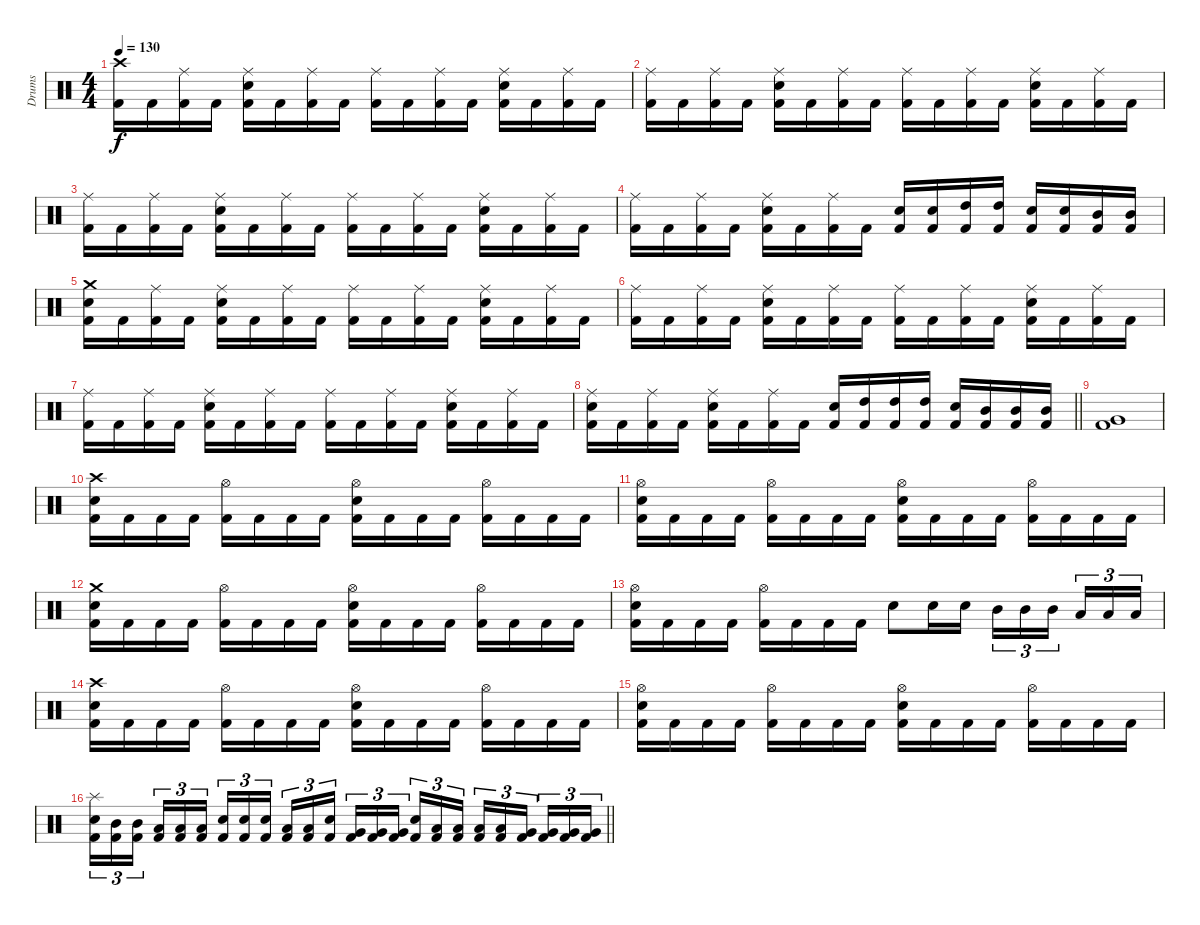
\track ("Drums" "Drums") {instrument percussion}
\staff {score}
\articulation defaults
\ts (4 4)
\tempo 130
\clef neutral
\ks c
("Crash high (hit)" "Kick (hit) 2").16{dy f} "Kick (hit) 2".16 ("Ride (middle)" "Kick (hit) 2").16 "Kick (hit) 2".16 ("Ride (middle)" "Snare (hit) 2" "Kick (hit) 2").16 "Kick (hit) 2".16 ("Ride (middle)" "Kick (hit) 2").16 "Kick (hit) 2".16 ("Ride (middle)" "Kick (hit) 2").16 "Kick (hit) 2".16 ("Ride (middle)" "Kick (hit) 2").16 "Kick (hit) 2".16 ("Ride (middle)" "Snare (hit) 2" "Kick (hit) 2").16 "Kick (hit) 2".16 ("Ride (middle)" "Kick (hit) 2").16 "Kick (hit) 2".16 |
("Ride (middle)" "Kick (hit) 2").16 "Kick (hit) 2".16 ("Ride (middle)" "Kick (hit) 2").16 "Kick (hit) 2".16 ("Ride (middle)" "Snare (hit) 2" "Kick (hit) 2").16 "Kick (hit) 2".16 ("Ride (middle)" "Kick (hit) 2").16 "Kick (hit) 2".16 ("Ride (middle)" "Kick (hit) 2").16 "Kick (hit) 2".16 ("Ride (middle)" "Kick (hit) 2").16 "Kick (hit) 2".16 ("Ride (middle)" "Snare (hit) 2" "Kick (hit) 2").16 "Kick (hit) 2".16 ("Ride (middle)" "Kick (hit) 2").16 "Kick (hit) 2".16 |
("Ride (middle)" "Kick (hit) 2").16 "Kick (hit) 2".16 ("Ride (middle)" "Kick (hit) 2").16 "Kick (hit) 2".16 ("Ride (middle)" "Snare (hit) 2" "Kick (hit) 2").16 "Kick (hit) 2".16 ("Ride (middle)" "Kick (hit) 2").16 "Kick (hit) 2".16 ("Ride (middle)" "Kick (hit) 2").16 "Kick (hit) 2".16 ("Ride (middle)" "Kick (hit) 2").16 "Kick (hit) 2".16 ("Ride (middle)" "Snare (hit) 2" "Kick (hit) 2").16 "Kick (hit) 2".16 ("Ride (middle)" "Kick (hit) 2").16 "Kick (hit) 2".16 |
("Ride (middle)" "Kick (hit) 2").16 "Kick (hit) 2".16 ("Ride (middle)" "Kick (hit) 2").16 "Kick (hit) 2".16 ("Ride (middle)" "Snare (hit) 2" "Kick (hit) 2").16 "Kick (hit) 2".16 ("Ride (middle)" "Kick (hit) 2").16 "Kick (hit) 2".16 ("Snare (hit) 2" "Kick (hit) 2").16 ("Snare (hit) 2" "Kick (hit) 2").16 ("High Tom (hit)" "Kick (hit) 2").16 ("High Tom (hit)" "Kick (hit) 2").16 ("Snare (hit) 2" "Kick (hit) 2").16 ("Snare (hit) 2" "Kick (hit) 2").16 ("Mid Tom (hit)" "Kick (hit) 2").16 ("Mid Tom (hit)" "Kick (hit) 2").16 |
("Crash medium (hit)" "Snare (hit) 2" "Kick (hit) 2").16 "Kick (hit) 2".16 ("Ride (middle)" "Kick (hit) 2").16 "Kick (hit) 2".16 ("Ride (middle)" "Snare (hit) 2" "Kick (hit) 2").16 "Kick (hit) 2".16 ("Ride (middle)" "Kick (hit) 2").16 "Kick (hit) 2".16 ("Ride (middle)" "Kick (hit) 2").16 "Kick (hit) 2".16 ("Ride (middle)" "Kick (hit) 2").16 "Kick (hit) 2".16 ("Ride (middle)" "Snare (hit) 2" "Kick (hit) 2").16 "Kick (hit) 2".16 ("Ride (middle)" "Kick (hit) 2").16 "Kick (hit) 2".16 |
("Ride (middle)" "Kick (hit) 2").16 "Kick (hit) 2".16 ("Ride (middle)" "Kick (hit) 2").16 "Kick (hit) 2".16 ("Ride (middle)" "Snare (hit) 2" "Kick (hit) 2").16 "Kick (hit) 2".16 ("Ride (middle)" "Kick (hit) 2").16 "Kick (hit) 2".16 ("Ride (middle)" "Kick (hit) 2").16 "Kick (hit) 2".16 ("Ride (middle)" "Kick (hit) 2").16 "Kick (hit) 2".16 ("Ride (middle)" "Snare (hit) 2" "Kick (hit) 2").16 "Kick (hit) 2".16 ("Ride (middle)" "Kick (hit) 2").16 "Kick (hit) 2".16 |
("Ride (middle)" "Kick (hit) 2").16 "Kick (hit) 2".16 ("Ride (middle)" "Kick (hit) 2").16 "Kick (hit) 2".16 ("Ride (middle)" "Snare (hit) 2" "Kick (hit) 2").16 "Kick (hit) 2".16 ("Ride (middle)" "Kick (hit) 2").16 "Kick (hit) 2".16 ("Ride (middle)" "Kick (hit) 2").16 "Kick (hit) 2".16 ("Ride (middle)" "Kick (hit) 2").16 "Kick (hit) 2".16 ("Ride (middle)" "Snare (hit) 2" "Kick (hit) 2").16 "Kick (hit) 2".16 ("Ride (middle)" "Kick (hit) 2").16 "Kick (hit) 2".16 |
\barLineRight lightlight
("Ride (middle)" "Snare (hit) 2" "Kick (hit) 2").16 "Kick (hit) 2".16 ("Ride (middle)" "Kick (hit) 2").16 "Kick (hit) 2".16 ("Ride (middle)" "Snare (hit) 2" "Kick (hit) 2").16 "Kick (hit) 2".16 ("Ride (middle)" "Kick (hit) 2").16 "Kick (hit) 2".16 ("Snare (hit) 2" "Kick (hit) 2").16 ("High Tom (hit)" "Kick (hit) 2").16 ("High Tom (hit)" "Kick (hit) 2").16 ("High Tom (hit)" "Kick (hit) 2").16 ("Snare (hit) 2" "Kick (hit) 2").16 ("Mid Tom (hit)" "Kick (hit) 2").16 ("Mid Tom (hit)" "Kick (hit) 2").16 ("Mid Tom (hit)" "Kick (hit) 2").16 |
\section ("" "")
("Very Low Tom (hit)" "Kick (hit) 2").1 |
("Crash high (hit)" "Snare (hit) 2" "Kick (hit) 2").16 "Kick (hit) 2".16 "Kick (hit) 2".16 "Kick (hit) 2".16 ("Hi-Hat (open)" "Kick (hit) 2").16 "Kick (hit) 2".16 "Kick (hit) 2".16 "Kick (hit) 2".16 ("Hi-Hat (open)" "Snare (hit) 2" "Kick (hit) 2").16 "Kick (hit) 2".16 "Kick (hit) 2".16 "Kick (hit) 2".16 ("Hi-Hat (open)" "Kick (hit) 2").16 "Kick (hit) 2".16 "Kick (hit) 2".16 "Kick (hit) 2".16 |
("Hi-Hat (open)" "Snare (hit) 2" "Kick (hit) 2").16 "Kick (hit) 2".16 "Kick (hit) 2".16 "Kick (hit) 2".16 ("Hi-Hat (open)" "Kick (hit) 2").16 "Kick (hit) 2".16 "Kick (hit) 2".16 "Kick (hit) 2".16 ("Hi-Hat (open)" "Snare (hit) 2" "Kick (hit) 2").16 "Kick (hit) 2".16 "Kick (hit) 2".16 "Kick (hit) 2".16 ("Hi-Hat (open)" "Kick (hit) 2").16 "Kick (hit) 2".16 "Kick (hit) 2".16 "Kick (hit) 2".16 |
("Crash medium (hit)" "Snare (hit) 2" "Kick (hit) 2").16 "Kick (hit) 2".16 "Kick (hit) 2".16 "Kick (hit) 2".16 ("Hi-Hat (open)" "Kick (hit) 2").16 "Kick (hit) 2".16 "Kick (hit) 2".16 "Kick (hit) 2".16 ("Hi-Hat (open)" "Snare (hit) 2" "Kick (hit) 2").16 "Kick (hit) 2".16 "Kick (hit) 2".16 "Kick (hit) 2".16 ("Hi-Hat (open)" "Kick (hit) 2").16 "Kick (hit) 2".16 "Kick (hit) 2".16 "Kick (hit) 2".16 |
("Hi-Hat (open)" "Snare (hit) 2" "Kick (hit) 2").16 "Kick (hit) 2".16 "Kick (hit) 2".16 "Kick (hit) 2".16 ("Hi-Hat (open)" "Kick (hit) 2").16 "Kick (hit) 2".16 "Kick (hit) 2".16 "Kick (hit) 2".16 "Snare (hit) 2".8 "Snare (hit) 2".16 "Snare (hit) 2".16 "Mid Tom (hit)".16{tu (3 2)} "Mid Tom (hit)".16{tu (3 2)} "Mid Tom (hit)".16{tu (3 2)} "Low Tom (hit)".16{tu (3 2)} "Low Tom (hit)".16{tu (3 2)} "Low Tom (hit)".16{tu (3 2)} |
("Crash high (hit)" "Snare (hit) 2" "Kick (hit) 2").16 "Kick (hit) 2".16 "Kick (hit) 2".16 "Kick (hit) 2".16 ("Hi-Hat (open)" "Kick (hit) 2").16 "Kick (hit) 2".16 "Kick (hit) 2".16 "Kick (hit) 2".16 ("Hi-Hat (open)" "Snare (hit) 2" "Kick (hit) 2").16 "Kick (hit) 2".16 "Kick (hit) 2".16 "Kick (hit) 2".16 ("Hi-Hat (open)" "Kick (hit) 2").16 "Kick (hit) 2".16 "Kick (hit) 2".16 "Kick (hit) 2".16 |
("Hi-Hat (open)" "Snare (hit) 2" "Kick (hit) 2").16 "Kick (hit) 2".16 "Kick (hit) 2".16 "Kick (hit) 2".16 ("Hi-Hat (open)" "Kick (hit) 2").16 "Kick (hit) 2".16 "Kick (hit) 2".16 "Kick (hit) 2".16 ("Hi-Hat (open)" "Snare (hit) 2" "Kick (hit) 2").16 "Kick (hit) 2".16 "Kick (hit) 2".16 "Kick (hit) 2".16 ("Hi-Hat (open)" "Kick (hit) 2").16 "Kick (hit) 2".16 "Kick (hit) 2".16 "Kick (hit) 2".16 |
\barLineRight lightlight
("Splash (hit)" "Snare (hit) 2" "Kick (hit) 2").16{tu (3 2)} ("Mid Tom (hit)" "Kick (hit) 2").16{tu (3 2)} ("Mid Tom (hit)" "Kick (hit) 2").16{tu (3 2)} ("Low Tom (hit)" "Kick (hit) 2").16{tu (3 2)} ("Low Tom (hit)" "Kick (hit) 2").16{tu (3 2)} ("Low Tom (hit)" "Kick (hit) 2").16{tu (3 2)} ("Snare (hit) 2" "Kick (hit) 2").16{tu (3 2)} ("Snare (hit) 2" "Kick (hit) 2").16{tu (3 2)} ("Snare (hit) 2" "Kick (hit) 2").16{tu (3 2)} ("Low Tom (hit)" "Kick (hit) 2").16{tu (3 2)} ("Low Tom (hit)" "Kick (hit) 2").16{tu (3 2)} ("Snare (hit) 2" "Kick (hit) 2").16{tu (3 2)} ("Very Low Tom (hit)" "Kick (hit) 2").16{tu (3 2)} ("Very Low Tom (hit)" "Kick (hit) 2").16{tu (3 2)} ("Very Low Tom (hit)" "Kick (hit) 2").16{tu (3 2)} ("Snare (hit) 2" "Kick (hit) 2").16{tu (3 2)} ("Low Tom (hit)" "Kick (hit) 2").16{tu (3 2)} ("Low Tom (hit)" "Kick (hit) 2").16{tu (3 2)} ("Low Tom (hit)" "Kick (hit) 2").16{tu (3 2)} ("Low Tom (hit)" "Kick (hit) 2").16{tu (3 2)} ("Very Low Tom (hit)" "Kick (hit) 2").16{tu (3 2)} ("Very Low Tom (hit)" "Kick (hit) 2").16{tu (3 2)} ("Very Low Tom (hit)" "Kick (hit) 2").16{tu (3 2)} ("Very Low Tom (hit)" "Kick (hit) 2").16{tu (3 2)}
